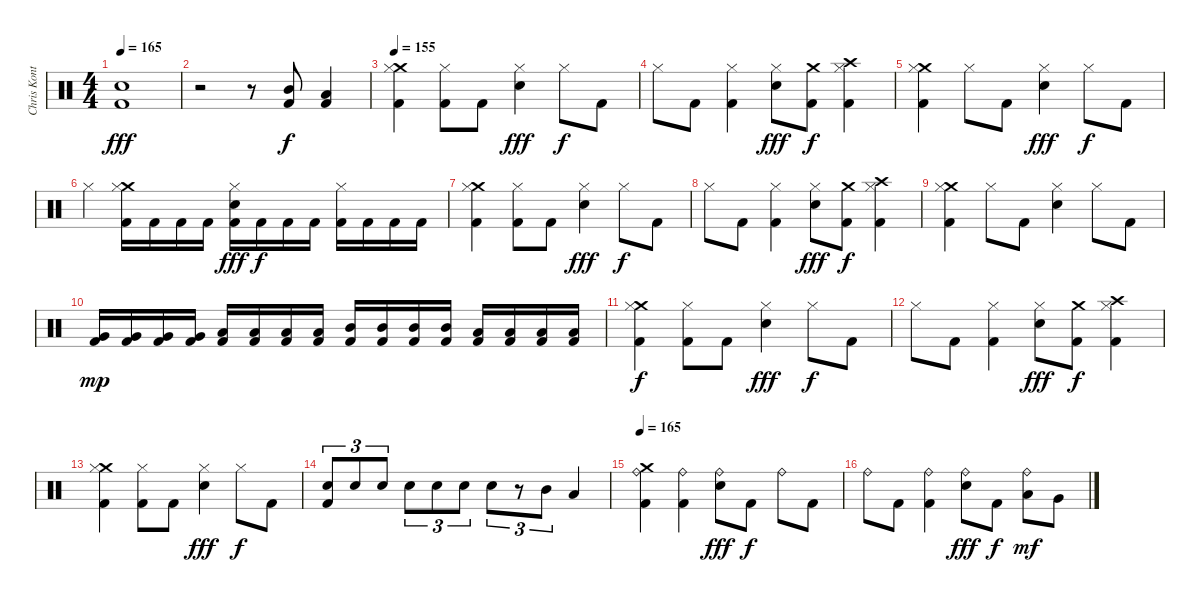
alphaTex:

\track ("Chris Kontos" "Chris Kont") {instrument percussion}
\staff {score}
\articulation defaults
\ts (4 4)
\tempo 165
\clef neutral
\ks c
("Electric Snare (hit)" "Kick (hit) 2").1{dy fff} |
r.2 r.8 ("Mid Tom (hit)" "Kick (hit) 2").8{dy f} ("Low Tom (hit)" "Kick (hit) 2").4 |
\tempo 155
("Crash medium (hit)" "Hi-Hat (closed)" "Kick (hit) 2").4 ("Hi-Hat (closed)" "Kick (hit) 2").8 "Kick (hit) 2".8 ("Electric Snare (hit)" "Hi-Hat (closed)").4{dy fff} "Hi-Hat (closed)".8{dy f} "Kick (hit) 2".8 |
"Hi-Hat (closed)".8 "Kick (hit) 2".8 ("Hi-Hat (closed)" "Kick (hit) 2").4 ("Electric Snare (hit)" "Hi-Hat (closed)").8{dy fff} ("Crash medium (hit)" "Kick (hit) 2").8{dy f} ("Crash high (hit)" "Hi-Hat (closed)" "Kick (hit) 2").4 |
("Crash medium (hit)" "Hi-Hat (closed)" "Kick (hit) 2").4 "Hi-Hat (closed)".8 "Kick (hit) 2".8 ("Electric Snare (hit)" "Hi-Hat (closed)").4{dy fff} "Hi-Hat (closed)".8{dy f} "Kick (hit) 2".8 |
"Hi-Hat (closed)".4 ("Crash medium (hit)" "Hi-Hat (closed)" "Kick (hit) 2").16 "Kick (hit) 2".16 "Kick (hit) 2".16 "Kick (hit) 2".16 ("Electric Snare (hit)" "Hi-Hat (closed)" "Kick (hit) 2").16{dy fff} "Kick (hit) 2".16{dy f} "Kick (hit) 2".16 "Kick (hit) 2".16 ("Hi-Hat (closed)" "Kick (hit) 2").16 "Kick (hit) 2".16 "Kick (hit) 2".16 "Kick (hit) 2".16 |
("Crash medium (hit)" "Hi-Hat (closed)" "Kick (hit) 2").4 ("Hi-Hat (closed)" "Kick (hit) 2").8 "Kick (hit) 2".8 ("Electric Snare (hit)" "Hi-Hat (closed)").4{dy fff} "Hi-Hat (closed)".8{dy f} "Kick (hit) 2".8 |
"Hi-Hat (closed)".8 "Kick (hit) 2".8 ("Hi-Hat (closed)" "Kick (hit) 2").4 ("Electric Snare (hit)" "Hi-Hat (closed)").8{dy fff} ("Crash medium (hit)" "Kick (hit) 2").8{dy f} ("Crash high (hit)" "Hi-Hat (closed)" "Kick (hit) 2").4 |
("Crash medium (hit)" "Hi-Hat (closed)" "Kick (hit) 2").4 "Hi-Hat (closed)".8 "Kick (hit) 2".8 ("Electric Snare (hit)" "Hi-Hat (closed)").4 "Hi-Hat (closed)".8 "Kick (hit) 2".8 |
("Very Low Tom (hit)" "Kick (hit) 2").16{dy mp} ("Very Low Tom (hit)" "Kick (hit) 2").16 ("Very Low Tom (hit)" "Kick (hit) 2").16 ("Very Low Tom (hit)" "Kick (hit) 2").16 ("Low Tom (hit)" "Kick (hit) 2").16 ("Low Tom (hit)" "Kick (hit) 2").16 ("Low Tom (hit)" "Kick (hit) 2").16 ("Low Tom (hit)" "Kick (hit) 2").16 ("Mid Tom (hit)" "Kick (hit) 2").16 ("Mid Tom (hit)" "Kick (hit) 2").16 ("Mid Tom (hit)" "Kick (hit) 2").16 ("Mid Tom (hit)" "Kick (hit) 2").16 ("Low Tom (hit)" "Kick (hit) 2").16 ("Low Tom (hit)" "Kick (hit) 2").16 ("Low Tom (hit)" "Kick (hit) 2").16 ("Low Tom (hit)" "Kick (hit) 2").16 |
("Crash medium (hit)" "Hi-Hat (closed)" "Kick (hit) 2").4{dy f} ("Hi-Hat (closed)" "Kick (hit) 2").8 "Kick (hit) 2".8 ("Electric Snare (hit)" "Hi-Hat (closed)").4{dy fff} "Hi-Hat (closed)".8{dy f} "Kick (hit) 2".8 |
"Hi-Hat (closed)".8 "Kick (hit) 2".8 ("Hi-Hat (closed)" "Kick (hit) 2").4 ("Electric Snare (hit)" "Hi-Hat (closed)").8{dy fff} ("Crash medium (hit)" "Kick (hit) 2").8{dy f} ("Crash high (hit)" "Hi-Hat (closed)" "Kick (hit) 2").4 |
("Crash medium (hit)" "Hi-Hat (closed)" "Kick (hit) 2").4 ("Hi-Hat (closed)" "Kick (hit) 2").8 "Kick (hit) 2".8 ("Electric Snare (hit)" "Hi-Hat (closed)").4{dy fff} "Hi-Hat (closed)".8{dy f} "Kick (hit) 2".8 |
("Electric Snare (hit)" "Kick (hit) 2").8{tu (3 2)} "Electric Snare (hit)".8{tu (3 2)} "Electric Snare (hit)".8{tu (3 2)} "Electric Snare (hit)".8{tu (3 2)} "Electric Snare (hit)".8{tu (3 2)} "Electric Snare (hit)".8{tu (3 2)} "Electric Snare (hit)".8{tu (3 2)} r.8{tu (3 2)} "Mid Tom (hit)".8{tu (3 2)} "Low Tom (hit)".4 |
\tempo 165
("Crash medium (hit)" "Ride (bell)" "Kick (hit) 2").4 ("Ride (bell)" "Kick (hit) 2").4 ("Electric Snare (hit)" "Ride (bell)").8{dy fff} "Kick (hit) 2".8{dy f} "Ride (bell)".8 "Kick (hit) 2".8 |
"Ride (bell)".8 "Kick (hit) 2".8 ("Ride (bell)" "Kick (hit) 2").4 ("Electric Snare (hit)" "Ride (bell)").8{dy fff} "Kick (hit) 2".8{dy f} ("Low Tom (hit)" "Ride (bell)").8{dy mf} "Very Low Tom (hit)".8
